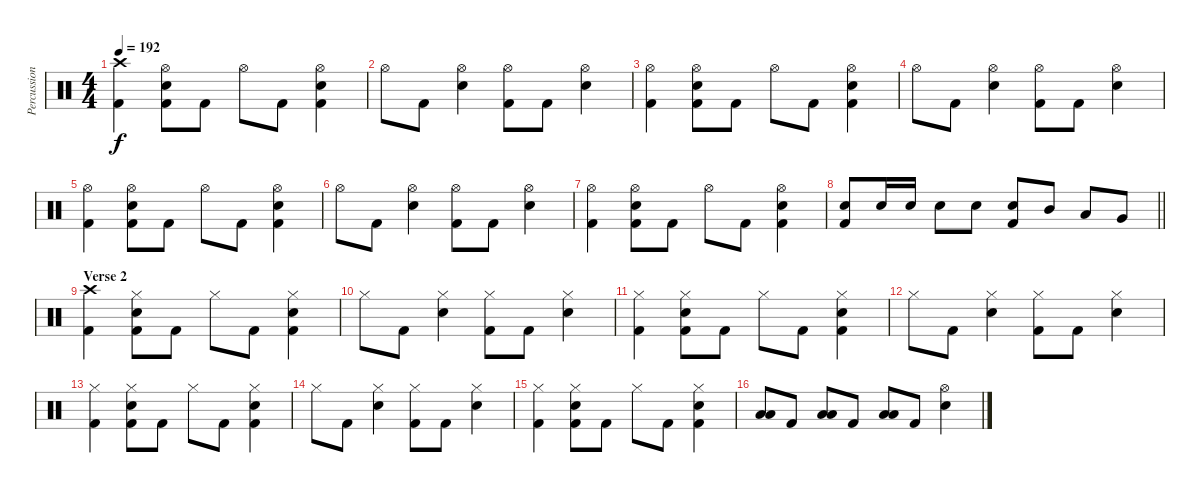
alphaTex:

\track ("Percussion" "Percussion") {instrument percussion}
\staff {score}
\articulation defaults
\ts (4 4)
\tempo 192
\clef neutral
\ks aminor
("Kick (hit) 2" "Crash high (hit)").4{dy f} ("Kick (hit) 2" "Snare (hit) 2" "Hi-Hat (open)").8 "Kick (hit) 2".8 "Hi-Hat (open)".8 "Kick (hit) 2".8 ("Kick (hit) 2" "Snare (hit) 2" "Hi-Hat (open)").4 |
"Hi-Hat (open)".8 "Kick (hit) 2".8 ("Snare (hit) 2" "Hi-Hat (open)").4 ("Kick (hit) 2" "Hi-Hat (open)").8 "Kick (hit) 2".8 ("Snare (hit) 2" "Hi-Hat (open)").4 |
("Kick (hit) 2" "Hi-Hat (open)").4 ("Kick (hit) 2" "Snare (hit) 2" "Hi-Hat (open)").8 "Kick (hit) 2".8 "Hi-Hat (open)".8 "Kick (hit) 2".8 ("Kick (hit) 2" "Snare (hit) 2" "Hi-Hat (open)").4 |
"Hi-Hat (open)".8 "Kick (hit) 2".8 ("Snare (hit) 2" "Hi-Hat (open)").4 ("Kick (hit) 2" "Hi-Hat (open)").8 "Kick (hit) 2".8 ("Snare (hit) 2" "Hi-Hat (open)").4 |
("Kick (hit) 2" "Hi-Hat (open)").4 ("Kick (hit) 2" "Snare (hit) 2" "Hi-Hat (open)").8 "Kick (hit) 2".8 "Hi-Hat (open)".8 "Kick (hit) 2".8 ("Kick (hit) 2" "Snare (hit) 2" "Hi-Hat (open)").4 |
"Hi-Hat (open)".8 "Kick (hit) 2".8 ("Snare (hit) 2" "Hi-Hat (open)").4 ("Kick (hit) 2" "Hi-Hat (open)").8 "Kick (hit) 2".8 ("Snare (hit) 2" "Hi-Hat (open)").4 |
("Kick (hit) 2" "Hi-Hat (open)").4 ("Kick (hit) 2" "Snare (hit) 2" "Hi-Hat (open)").8 "Kick (hit) 2".8 "Hi-Hat (open)".8 "Kick (hit) 2".8 ("Kick (hit) 2" "Snare (hit) 2" "Hi-Hat (open)").4 |
\barLineRight lightlight
("Kick (hit) 2" "Snare (hit) 2").8 "Snare (hit) 2".16 "Snare (hit) 2".16 "Snare (hit) 2".8 "Snare (hit) 2".8 ("Kick (hit) 2" "Snare (hit) 2").8 "Mid Tom (hit)".8 "Low Tom (hit)".8 "Very Low Tom (hit)".8 |
\section ("" "Verse 2")
("Kick (hit) 2" "Crash high (hit)").4 ("Kick (hit) 2" "Snare (hit) 2" "Hi-Hat (closed)").8 "Kick (hit) 2".8 "Hi-Hat (closed)".8 "Kick (hit) 2".8 ("Kick (hit) 2" "Snare (hit) 2" "Hi-Hat (closed)").4 |
"Hi-Hat (closed)".8 "Kick (hit) 2".8 ("Snare (hit) 2" "Hi-Hat (closed)").4 ("Kick (hit) 2" "Hi-Hat (closed)").8 "Kick (hit) 2".8 ("Snare (hit) 2" "Hi-Hat (closed)").4 |
("Kick (hit) 2" "Hi-Hat (closed)").4 ("Kick (hit) 2" "Snare (hit) 2" "Hi-Hat (closed)").8 "Kick (hit) 2".8 "Hi-Hat (closed)".8 "Kick (hit) 2".8 ("Kick (hit) 2" "Snare (hit) 2" "Hi-Hat (closed)").4 |
"Hi-Hat (closed)".8 "Kick (hit) 2".8 ("Snare (hit) 2" "Hi-Hat (closed)").4 ("Kick (hit) 2" "Hi-Hat (closed)").8 "Kick (hit) 2".8 ("Snare (hit) 2" "Hi-Hat (closed)").4 |
("Kick (hit) 2" "Hi-Hat (closed)").4 ("Kick (hit) 2" "Snare (hit) 2" "Hi-Hat (closed)").8 "Kick (hit) 2".8 "Hi-Hat (closed)".8 "Kick (hit) 2".8 ("Kick (hit) 2" "Snare (hit) 2" "Hi-Hat (closed)").4 |
"Hi-Hat (closed)".8 "Kick (hit) 2".8 ("Snare (hit) 2" "Hi-Hat (closed)").4 ("Kick (hit) 2" "Hi-Hat (closed)").8 "Kick (hit) 2".8 ("Snare (hit) 2" "Hi-Hat (closed)").4 |
("Kick (hit) 2" "Hi-Hat (closed)").4 ("Kick (hit) 2" "Snare (hit) 2" "Hi-Hat (closed)").8 "Kick (hit) 2".8 "Hi-Hat (closed)".8 "Kick (hit) 2".8 ("Kick (hit) 2" "Snare (hit) 2" "Hi-Hat (closed)").4 |
("Low Tom (hit)" "Low Floor Tom (hit)").8 "Kick (hit) 2".8 ("Low Floor Tom (hit)" "Low Floor Tom (hit)").8 "Kick (hit) 2".8 ("Low Floor Tom (hit)" "Low Floor Tom (hit)").8 "Kick (hit) 2".8 ("Hi-Hat (open)" "Snare (hit) 2").4
